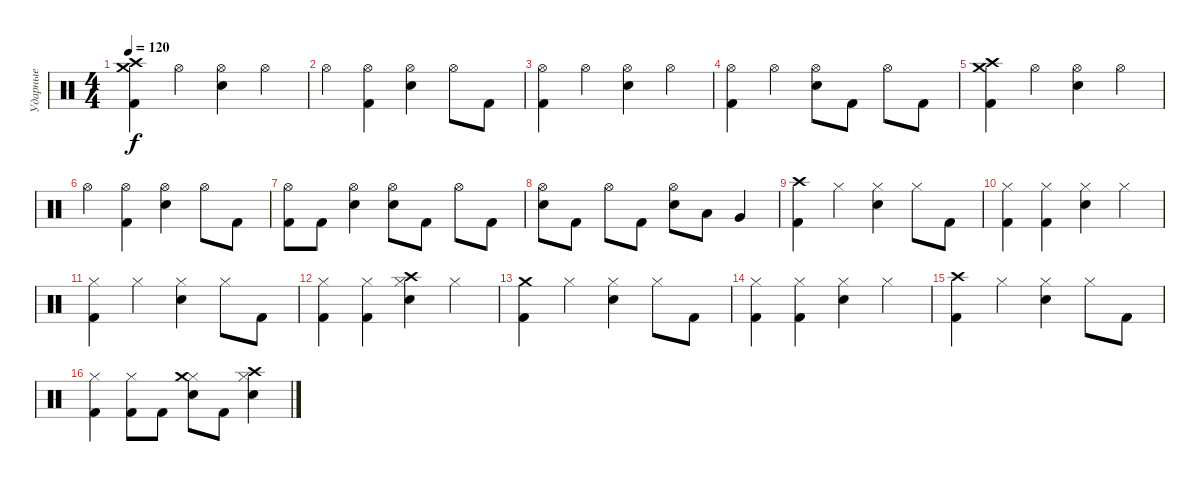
\track ("Ударные" "Ударные") {instrument percussion}
\staff {score}
\articulation defaults
\ts (4 4)
\tempo 120
\clef neutral
\ks c
("Kick (hit) 2" "Crash high (hit)" "Crash medium (hit)").4{dy f} "Hi-Hat (open)".4 ("Electric Snare (hit)" "Hi-Hat (open)").4 "Hi-Hat (open)".4 |
"Hi-Hat (open)".4 ("Kick (hit) 2" "Hi-Hat (open)").4 ("Electric Snare (hit)" "Hi-Hat (open)").4 "Hi-Hat (open)".8 "Kick (hit) 2".8 |
("Kick (hit) 2" "Hi-Hat (open)").4 "Hi-Hat (open)".4 ("Electric Snare (hit)" "Hi-Hat (open)").4 "Hi-Hat (open)".4 |
("Kick (hit) 2" "Hi-Hat (open)").4 "Hi-Hat (open)".4 ("Electric Snare (hit)" "Hi-Hat (open)").8 "Kick (hit) 2".8 "Hi-Hat (open)".8 "Kick (hit) 2".8 |
("Kick (hit) 2" "Crash high (hit)" "Crash medium (hit)").4 "Hi-Hat (open)".4 ("Electric Snare (hit)" "Hi-Hat (open)").4 "Hi-Hat (open)".4 |
"Hi-Hat (open)".4 ("Kick (hit) 2" "Hi-Hat (open)").4 ("Electric Snare (hit)" "Hi-Hat (open)").4 "Hi-Hat (open)".8 "Kick (hit) 2".8 |
("Kick (hit) 2" "Hi-Hat (open)").8 "Kick (hit) 2".8 ("Electric Snare (hit)" "Hi-Hat (open)").4 ("Electric Snare (hit)" "Hi-Hat (open)").8 "Kick (hit) 2".8 "Hi-Hat (open)".8 "Kick (hit) 2".8 |
("Electric Snare (hit)" "Hi-Hat (open)").8 "Kick (hit) 2".8 "Hi-Hat (open)".8 "Kick (hit) 2".8 ("Electric Snare (hit)" "Hi-Hat (open)").8 "Low Tom (hit)".8 "Very Low Tom (hit)".4 |
("Kick (hit) 2" "Crash high (hit)").4 "Hi-Hat (closed)".4 ("Electric Snare (hit)" "Hi-Hat (closed)").4 "Hi-Hat (closed)".8 "Kick (hit) 2".8 |
("Kick (hit) 2" "Hi-Hat (closed)").4 ("Kick (hit) 2" "Hi-Hat (closed)").4 ("Electric Snare (hit)" "Hi-Hat (closed)").4 "Hi-Hat (closed)".4 |
("Kick (hit) 2" "Hi-Hat (closed)").4 "Hi-Hat (closed)".4 ("Electric Snare (hit)" "Hi-Hat (closed)").4 "Hi-Hat (closed)".8 "Kick (hit) 2".8 |
("Kick (hit) 2" "Hi-Hat (closed)").4 ("Kick (hit) 2" "Hi-Hat (closed)").4 ("Electric Snare (hit)" "Hi-Hat (closed)" "Crash high (hit)").4 "Hi-Hat (closed)".4 |
("Kick (hit) 2" "Crash medium (hit)").4 "Hi-Hat (closed)".4 ("Electric Snare (hit)" "Hi-Hat (closed)").4 "Hi-Hat (closed)".8 "Kick (hit) 2".8 |
("Kick (hit) 2" "Hi-Hat (closed)").4 ("Kick (hit) 2" "Hi-Hat (closed)").4 ("Electric Snare (hit)" "Hi-Hat (closed)").4 "Hi-Hat (closed)".4 |
("Kick (hit) 2" "Crash high (hit)").4 "Hi-Hat (closed)".4 ("Electric Snare (hit)" "Hi-Hat (closed)").4 "Hi-Hat (closed)".8 "Kick (hit) 2".8 |
("Kick (hit) 2" "Hi-Hat (closed)").4 ("Kick (hit) 2" "Hi-Hat (closed)").8 "Kick (hit) 2".8 ("Electric Snare (hit)" "Hi-Hat (closed)" "Crash medium (hit)").8 "Kick (hit) 2".8 ("Electric Snare (hit)" "Hi-Hat (closed)" "Crash high (hit)").4
